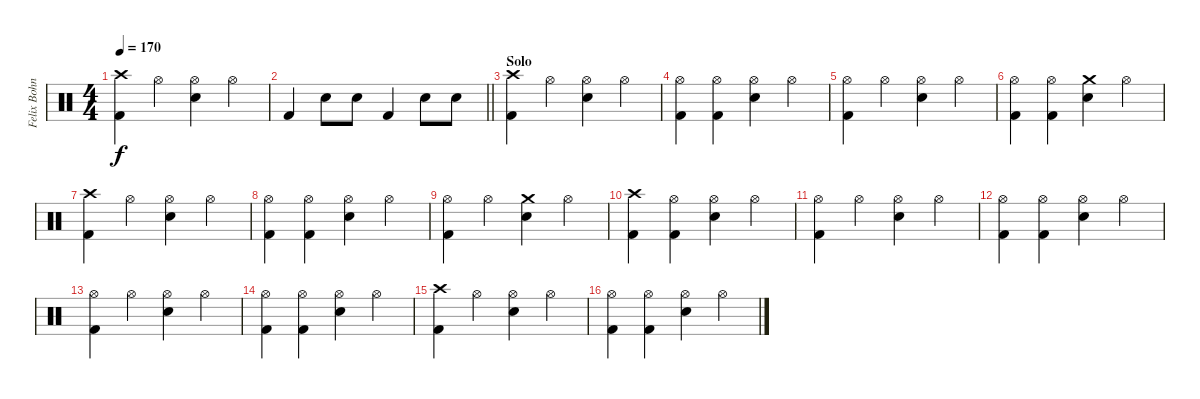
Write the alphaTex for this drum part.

\track ("Felix Bohnke - Drums" "Felix Bohn") {instrument percussion}
\staff {score}
\articulation defaults
\ts (4 4)
\tempo 170
\clef neutral
\ks c
("Crash high (hit)" "Kick (hit) 2").4{dy f} "Hi-Hat (open)".4 ("Hi-Hat (open)" "Snare (hit) 2").4 "Hi-Hat (open)".4 |
\barLineRight lightlight "Kick (hit) 2".4 "Snare (hit) 2".8 "Snare (hit) 2".8 "Kick (hit) 2".4 "Snare (hit) 2".8 "Snare (hit) 2".8
|
\section ("" "Solo")
("Crash high (hit)" "Kick (hit) 2").4 "Hi-Hat (open)".4 ("Hi-Hat (open)" "Snare (hit) 2").4 "Hi-Hat (open)".4 |
("Hi-Hat (open)" "Kick (hit) 2").4 ("Hi-Hat (open)" "Kick (hit) 2").4 ("Hi-Hat (open)" "Snare (hit) 2").4 "Hi-Hat (open)".4 |
("Hi-Hat (open)" "Kick (hit) 2").4 "Hi-Hat (open)".4 ("Hi-Hat (open)" "Snare (hit) 2").4 "Hi-Hat (open)".4 |
("Hi-Hat (open)" "Kick (hit) 2").4 ("Hi-Hat (open)" "Kick (hit) 2").4 ("Crash medium (hit)" "Snare (hit) 2").4 "Hi-Hat (open)".4 |
("Crash high (hit)" "Kick (hit) 2").4 "Hi-Hat (open)".4 ("Hi-Hat (open)" "Snare (hit) 2").4 "Hi-Hat (open)".4 |
("Hi-Hat (open)" "Kick (hit) 2").4 ("Hi-Hat (open)" "Kick (hit) 2").4 ("Hi-Hat (open)" "Snare (hit) 2").4 "Hi-Hat (open)".4 |
("Hi-Hat (open)" "Kick (hit) 2").4 "Hi-Hat (open)".4 ("Crash medium (hit)" "Snare (hit) 2").4 "Hi-Hat (open)".4 |
("Crash high (hit)" "Kick (hit) 2").4 ("Hi-Hat (open)" "Kick (hit) 2").4 ("Hi-Hat (open)" "Snare (hit) 2").4 "Hi-Hat (open)".4 |
("Hi-Hat (open)" "Kick (hit) 2").4 "Hi-Hat (open)".4 ("Hi-Hat (open)" "Snare (hit) 2").4 "Hi-Hat (open)".4 |
("Hi-Hat (open)" "Kick (hit) 2").4 ("Hi-Hat (open)" "Kick (hit) 2").4 ("Hi-Hat (open)" "Snare (hit) 2").4 "Hi-Hat (open)".4 |
("Hi-Hat (open)" "Kick (hit) 2").4 "Hi-Hat (open)".4 ("Hi-Hat (open)" "Snare (hit) 2").4 "Hi-Hat (open)".4 |
("Hi-Hat (open)" "Kick (hit) 2").4 ("Hi-Hat (open)" "Kick (hit) 2").4 ("Hi-Hat (open)" "Snare (hit) 2").4 "Hi-Hat (open)".4 |
("Crash high (hit)" "Kick (hit) 2").4 "Hi-Hat (open)".4 ("Hi-Hat (open)" "Snare (hit) 2").4 "Hi-Hat (open)".4 |
("Hi-Hat (open)" "Kick (hit) 2").4 ("Hi-Hat (open)" "Kick (hit) 2").4 ("Hi-Hat (open)" "Snare (hit) 2").4 "Hi-Hat (open)".4
